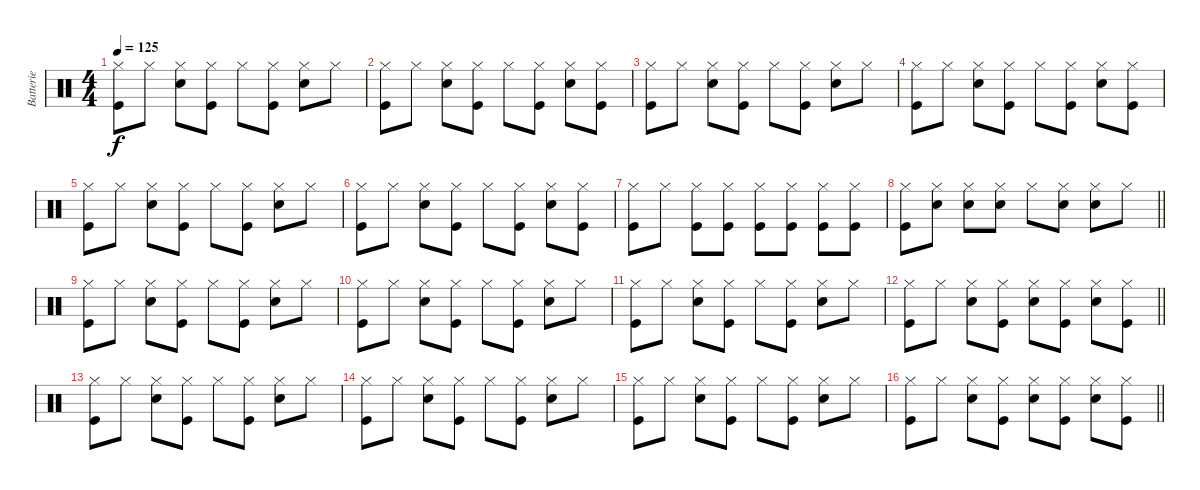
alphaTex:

\track ("Batterie" "Batterie") {instrument percussion}
\staff {score}
\articulation defaults
\ts (4 4)
\tempo 125
\clef neutral
\ks c
("Hi-Hat (closed)" "Kick (hit)").8{dy f} "Hi-Hat (closed)".8 ("Hi-Hat (closed)" "Snare (hit) 2").8 ("Hi-Hat (closed)" "Kick (hit)").8 "Hi-Hat (closed)".8 ("Hi-Hat (closed)" "Kick (hit)").8 ("Hi-Hat (closed)" "Snare (hit) 2").8 "Hi-Hat (closed)".8 |
("Hi-Hat (closed)" "Kick (hit)").8 "Hi-Hat (closed)".8 ("Hi-Hat (closed)" "Snare (hit) 2").8 ("Hi-Hat (closed)" "Kick (hit)").8 "Hi-Hat (closed)".8 ("Hi-Hat (closed)" "Kick (hit)").8 ("Hi-Hat (closed)" "Snare (hit) 2").8 ("Hi-Hat (closed)" "Kick (hit)").8 |
("Hi-Hat (closed)" "Kick (hit)").8 "Hi-Hat (closed)".8 ("Hi-Hat (closed)" "Snare (hit) 2").8 ("Hi-Hat (closed)" "Kick (hit)").8 "Hi-Hat (closed)".8 ("Hi-Hat (closed)" "Kick (hit)").8 ("Hi-Hat (closed)" "Snare (hit) 2").8 "Hi-Hat (closed)".8 |
("Hi-Hat (closed)" "Kick (hit)").8 "Hi-Hat (closed)".8 ("Hi-Hat (closed)" "Snare (hit) 2").8 ("Hi-Hat (closed)" "Kick (hit)").8 "Hi-Hat (closed)".8 ("Hi-Hat (closed)" "Kick (hit)").8 ("Hi-Hat (closed)" "Snare (hit) 2").8 ("Hi-Hat (closed)" "Kick (hit)").8 |
("Hi-Hat (closed)" "Kick (hit)").8 "Hi-Hat (closed)".8 ("Hi-Hat (closed)" "Snare (hit) 2").8 ("Hi-Hat (closed)" "Kick (hit)").8 "Hi-Hat (closed)".8 ("Hi-Hat (closed)" "Kick (hit)").8 ("Hi-Hat (closed)" "Snare (hit) 2").8 "Hi-Hat (closed)".8 |
("Hi-Hat (closed)" "Kick (hit)").8 "Hi-Hat (closed)".8 ("Hi-Hat (closed)" "Snare (hit) 2").8 ("Hi-Hat (closed)" "Kick (hit)").8 "Hi-Hat (closed)".8 ("Hi-Hat (closed)" "Kick (hit)").8 ("Hi-Hat (closed)" "Snare (hit) 2").8 ("Hi-Hat (closed)" "Kick (hit)").8 |
("Hi-Hat (closed)" "Kick (hit)").8 "Hi-Hat (closed)".8 ("Hi-Hat (closed)" "Kick (hit)").8 ("Hi-Hat (closed)" "Kick (hit)").8 ("Hi-Hat (closed)" "Kick (hit)").8 ("Hi-Hat (closed)" "Kick (hit)").8 ("Hi-Hat (closed)" "Kick (hit)").8 ("Hi-Hat (closed)" "Kick (hit)").8 |
\barLineRight lightlight
("Hi-Hat (closed)" "Kick (hit)").8 ("Hi-Hat (closed)" "Snare (hit) 2").8 ("Hi-Hat (closed)" "Snare (hit) 2").8 ("Hi-Hat (closed)" "Snare (hit) 2").8 "Hi-Hat (closed)".8 ("Hi-Hat (closed)" "Snare (hit) 2").8 ("Hi-Hat (closed)" "Snare (hit) 2").8 "Hi-Hat (closed)".8 |
("Hi-Hat (closed)" "Kick (hit)").8 "Hi-Hat (closed)".8 ("Hi-Hat (closed)" "Snare (hit) 2").8 ("Hi-Hat (closed)" "Kick (hit)").8 "Hi-Hat (closed)".8 ("Hi-Hat (closed)" "Kick (hit)").8 ("Hi-Hat (closed)" "Snare (hit) 2").8 "Hi-Hat (closed)".8 |
("Hi-Hat (closed)" "Kick (hit)").8 "Hi-Hat (closed)".8 ("Hi-Hat (closed)" "Snare (hit) 2").8 ("Hi-Hat (closed)" "Kick (hit)").8 "Hi-Hat (closed)".8 ("Hi-Hat (closed)" "Kick (hit)").8 ("Hi-Hat (closed)" "Snare (hit) 2").8 "Hi-Hat (closed)".8 |
("Hi-Hat (closed)" "Kick (hit)").8 "Hi-Hat (closed)".8 ("Hi-Hat (closed)" "Snare (hit) 2").8 ("Hi-Hat (closed)" "Kick (hit)").8 "Hi-Hat (closed)".8 ("Hi-Hat (closed)" "Kick (hit)").8 ("Hi-Hat (closed)" "Snare (hit) 2").8 "Hi-Hat (closed)".8 |
\barLineRight lightlight
("Hi-Hat (closed)" "Kick (hit)").8 "Hi-Hat (closed)".8 ("Hi-Hat (closed)" "Snare (hit) 2").8 ("Hi-Hat (closed)" "Kick (hit)").8 ("Hi-Hat (closed)" "Snare (hit) 2").8 ("Hi-Hat (closed)" "Kick (hit)").8 ("Hi-Hat (closed)" "Snare (hit) 2").8 ("Hi-Hat (closed)" "Kick (hit)").8 |
("Hi-Hat (closed)" "Kick (hit)").8 "Hi-Hat (closed)".8 ("Hi-Hat (closed)" "Snare (hit) 2").8 ("Hi-Hat (closed)" "Kick (hit)").8 "Hi-Hat (closed)".8 ("Hi-Hat (closed)" "Kick (hit)").8 ("Hi-Hat (closed)" "Snare (hit) 2").8 "Hi-Hat (closed)".8 |
("Hi-Hat (closed)" "Kick (hit)").8 "Hi-Hat (closed)".8 ("Hi-Hat (closed)" "Snare (hit) 2").8 ("Hi-Hat (closed)" "Kick (hit)").8 "Hi-Hat (closed)".8 ("Hi-Hat (closed)" "Kick (hit)").8 ("Hi-Hat (closed)" "Snare (hit) 2").8 "Hi-Hat (closed)".8 |
("Hi-Hat (closed)" "Kick (hit)").8 "Hi-Hat (closed)".8 ("Hi-Hat (closed)" "Snare (hit) 2").8 ("Hi-Hat (closed)" "Kick (hit)").8 "Hi-Hat (closed)".8 ("Hi-Hat (closed)" "Kick (hit)").8 ("Hi-Hat (closed)" "Snare (hit) 2").8 "Hi-Hat (closed)".8 |
\barLineRight lightlight
("Hi-Hat (closed)" "Kick (hit)").8 "Hi-Hat (closed)".8 ("Hi-Hat (closed)" "Snare (hit) 2").8 ("Hi-Hat (closed)" "Kick (hit)").8 ("Hi-Hat (closed)" "Snare (hit) 2").8 ("Hi-Hat (closed)" "Kick (hit)").8 ("Hi-Hat (closed)" "Snare (hit) 2").8 ("Hi-Hat (closed)" "Kick (hit)").8
